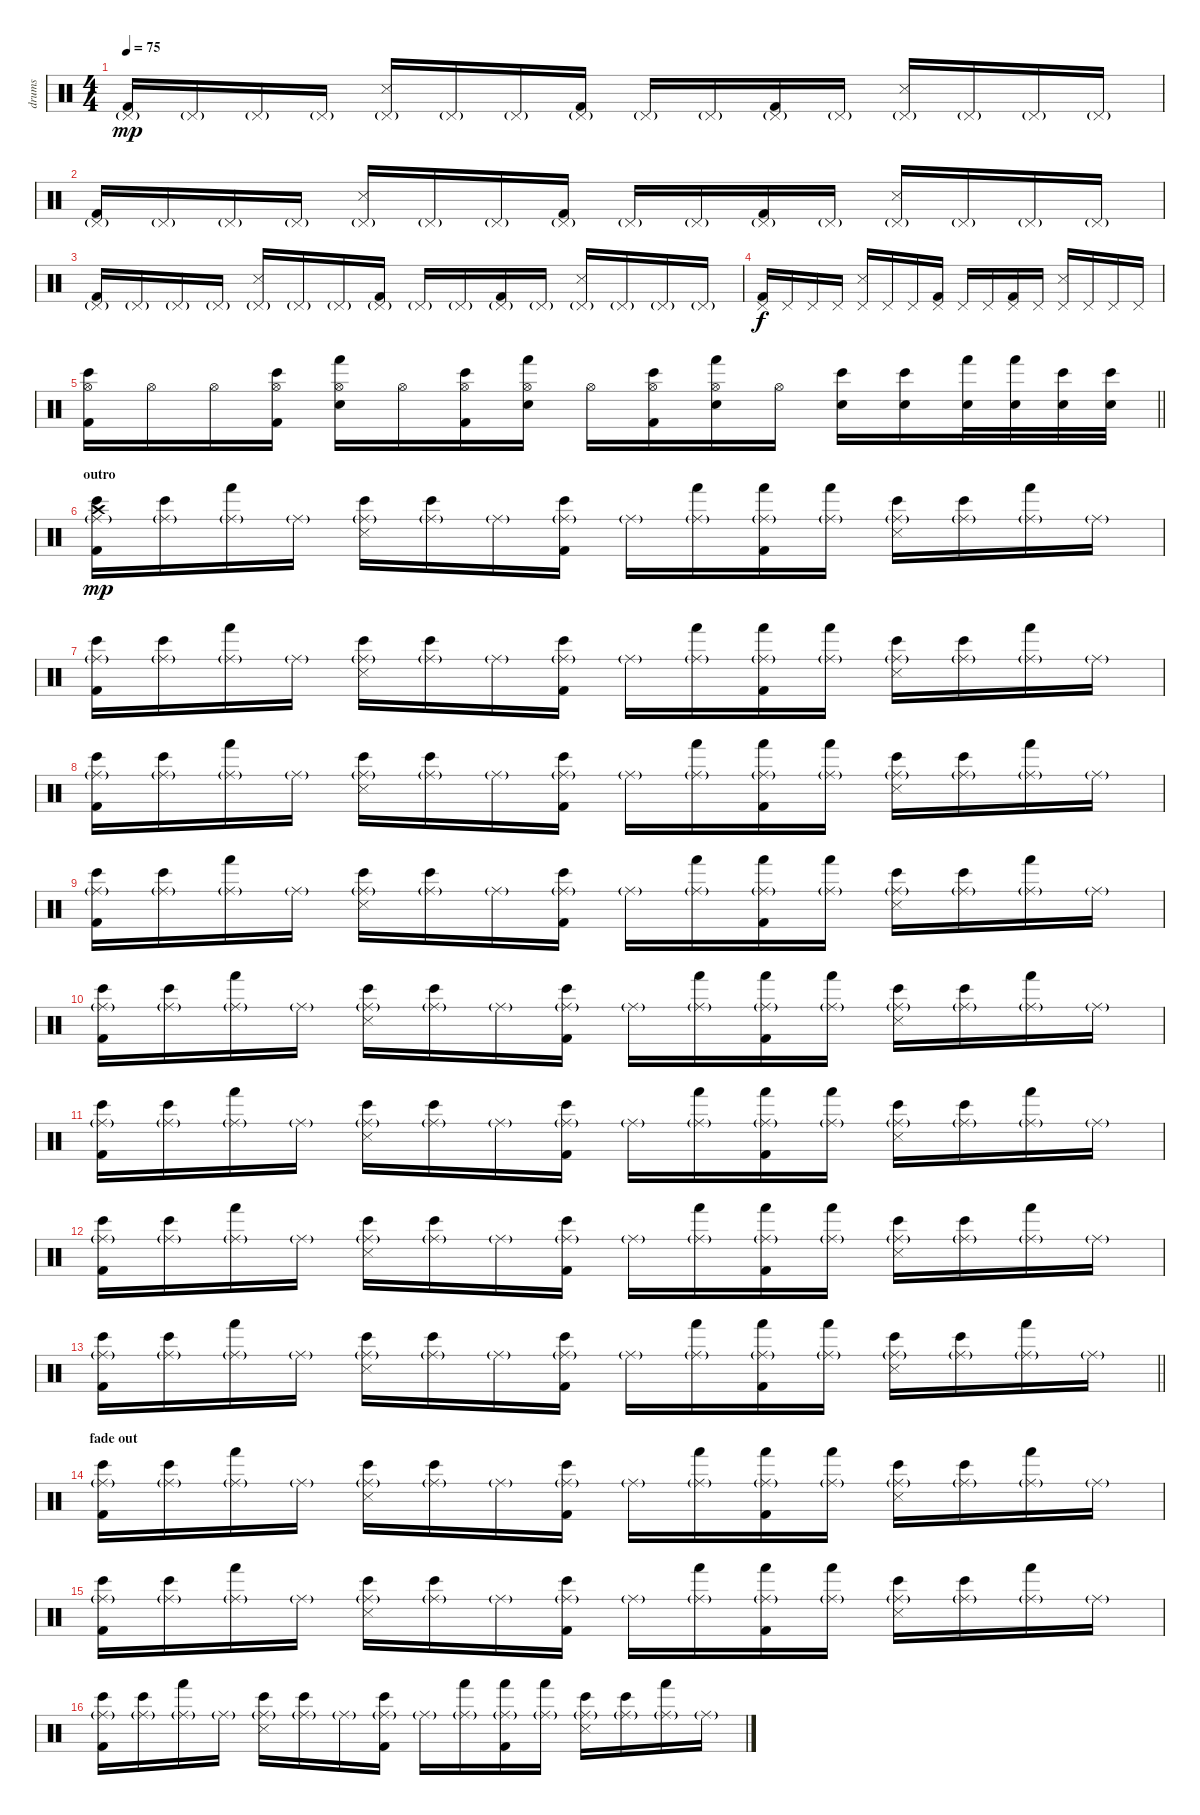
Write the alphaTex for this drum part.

\track ("drums" "drums") {instrument percussion}
\staff {score}
\articulation defaults
\ts (4 4)
\tempo 75
\clef neutral
\ks c
("Kick (hit) 2" "Pedal Hi-Hat (hit)"{g}).16{dy mp} "Pedal Hi-Hat (hit)"{g}.16 "Pedal Hi-Hat (hit)"{g}.16 "Pedal Hi-Hat (hit)"{g}.16 ("Snare (side stick) 3" "Pedal Hi-Hat (hit)"{g}).16 "Pedal Hi-Hat (hit)"{g}.16 "Pedal Hi-Hat (hit)"{g}.16 ("Kick (hit) 2" "Pedal Hi-Hat (hit)"{g}).16 "Pedal Hi-Hat (hit)"{g}.16 "Pedal Hi-Hat (hit)"{g}.16 ("Kick (hit) 2" "Pedal Hi-Hat (hit)"{g}).16 "Pedal Hi-Hat (hit)"{g}.16 ("Snare (side stick) 3" "Pedal Hi-Hat (hit)"{g}).16 "Pedal Hi-Hat (hit)"{g}.16 "Pedal Hi-Hat (hit)"{g}.16 "Pedal Hi-Hat (hit)"{g}.16 |
("Kick (hit) 2" "Pedal Hi-Hat (hit)"{g}).16 "Pedal Hi-Hat (hit)"{g}.16 "Pedal Hi-Hat (hit)"{g}.16 "Pedal Hi-Hat (hit)"{g}.16 ("Snare (side stick) 3" "Pedal Hi-Hat (hit)"{g}).16 "Pedal Hi-Hat (hit)"{g}.16 "Pedal Hi-Hat (hit)"{g}.16 ("Kick (hit) 2" "Pedal Hi-Hat (hit)"{g}).16 "Pedal Hi-Hat (hit)"{g}.16 "Pedal Hi-Hat (hit)"{g}.16 ("Kick (hit) 2" "Pedal Hi-Hat (hit)"{g}).16 "Pedal Hi-Hat (hit)"{g}.16 ("Snare (side stick) 3" "Pedal Hi-Hat (hit)"{g}).16 "Pedal Hi-Hat (hit)"{g}.16 "Pedal Hi-Hat (hit)"{g}.16 "Pedal Hi-Hat (hit)"{g}.16 |
("Kick (hit) 2" "Pedal Hi-Hat (hit)"{g}).16 "Pedal Hi-Hat (hit)"{g}.16 "Pedal Hi-Hat (hit)"{g}.16 "Pedal Hi-Hat (hit)"{g}.16 ("Snare (side stick) 3" "Pedal Hi-Hat (hit)"{g}).16 "Pedal Hi-Hat (hit)"{g}.16 "Pedal Hi-Hat (hit)"{g}.16 ("Kick (hit) 2" "Pedal Hi-Hat (hit)"{g}).16 "Pedal Hi-Hat (hit)"{g}.16 "Pedal Hi-Hat (hit)"{g}.16 ("Kick (hit) 2" "Pedal Hi-Hat (hit)"{g}).16 "Pedal Hi-Hat (hit)"{g}.16 ("Snare (side stick) 3" "Pedal Hi-Hat (hit)"{g}).16 "Pedal Hi-Hat (hit)"{g}.16 "Pedal Hi-Hat (hit)"{g}.16 "Pedal Hi-Hat (hit)"{g}.16 |
("Kick (hit) 2" "Pedal Hi-Hat (hit)").16{dy f volume 16} "Pedal Hi-Hat (hit)".16 "Pedal Hi-Hat (hit)".16 "Pedal Hi-Hat (hit)".16 ("Snare (side stick) 3" "Pedal Hi-Hat (hit)").16 "Pedal Hi-Hat (hit)".16 "Pedal Hi-Hat (hit)".16 ("Kick (hit) 2" "Pedal Hi-Hat (hit)").16 "Pedal Hi-Hat (hit)".16 "Pedal Hi-Hat (hit)".16 ("Kick (hit) 2" "Pedal Hi-Hat (hit)").16 "Pedal Hi-Hat (hit)".16 ("Snare (side stick) 3" "Pedal Hi-Hat (hit)").16 "Pedal Hi-Hat (hit)".16 "Pedal Hi-Hat (hit)".16 "Pedal Hi-Hat (hit)".16 |
\barLineRight lightlight
("Kick (hit) 2" "Bongo High (hit)" "Hi-Hat (open)").16 "Hi-Hat (open)".16 "Hi-Hat (open)".16 ("Kick (hit) 2" "Bongo High (hit)" "Hi-Hat (open)").16 ("Electric Snare (hit)" "Hand (hit)" "Hi-Hat (open)").16 "Hi-Hat (open)".16 ("Kick (hit) 2" "Bongo High (hit)" "Hi-Hat (open)").16 ("Electric Snare (hit)" "Hand (hit)" "Hi-Hat (open)").16 "Hi-Hat (open)".16 ("Kick (hit) 2" "Bongo High (hit)" "Hi-Hat (open)").16 ("Electric Snare (hit)" "Hand (hit)" "Hi-Hat (open)").16 "Hi-Hat (open)".16 ("Electric Snare (hit)" "Bongo High (hit)").16 ("Electric Snare (hit)" "Bongo High (hit)").16 ("Electric Snare (hit)" "Hand (hit)").32 ("Electric Snare (hit)" "Hand (hit)").32 ("Electric Snare (hit)" "Bongo High (hit)").32 ("Electric Snare (hit)" "Bongo High (hit)").32 |
\section ("" "outro")
("Kick (hit) 2" "Bongo High (hit)" "Ride (middle)"{g} "Crash high (hit)").16{dy mp} ("Bongo High (hit)" "Ride (middle)"{g}).16 ("Hand (hit)" "Ride (middle)"{g}).16 "Ride (middle)"{g}.16 ("Snare (side stick) 3" "Bongo High (hit)" "Ride (middle)"{g}).16 ("Bongo High (hit)" "Ride (middle)"{g}).16 "Ride (middle)"{g}.16 ("Kick (hit) 2" "Bongo High (hit)" "Ride (middle)"{g}).16 "Ride (middle)"{g}.16 ("Hand (hit)" "Ride (middle)"{g}).16 ("Kick (hit) 2" "Hand (hit)" "Ride (middle)"{g}).16 ("Hand (hit)" "Ride (middle)"{g}).16 ("Snare (side stick) 3" "Bongo High (hit)" "Ride (middle)"{g}).16 ("Bongo High (hit)" "Ride (middle)"{g}).16 ("Hand (hit)" "Ride (middle)"{g}).16 "Ride (middle)"{g}.16 |
("Kick (hit) 2" "Bongo High (hit)" "Ride (middle)"{g}).16 ("Bongo High (hit)" "Ride (middle)"{g}).16 ("Hand (hit)" "Ride (middle)"{g}).16 "Ride (middle)"{g}.16 ("Snare (side stick) 3" "Bongo High (hit)" "Ride (middle)"{g}).16 ("Bongo High (hit)" "Ride (middle)"{g}).16 "Ride (middle)"{g}.16 ("Kick (hit) 2" "Bongo High (hit)" "Ride (middle)"{g}).16 "Ride (middle)"{g}.16 ("Hand (hit)" "Ride (middle)"{g}).16 ("Kick (hit) 2" "Hand (hit)" "Ride (middle)"{g}).16 ("Hand (hit)" "Ride (middle)"{g}).16 ("Snare (side stick) 3" "Bongo High (hit)" "Ride (middle)"{g}).16 ("Bongo High (hit)" "Ride (middle)"{g}).16 ("Hand (hit)" "Ride (middle)"{g}).16 "Ride (middle)"{g}.16 |
("Kick (hit) 2" "Bongo High (hit)" "Ride (middle)"{g}).16 ("Bongo High (hit)" "Ride (middle)"{g}).16 ("Hand (hit)" "Ride (middle)"{g}).16 "Ride (middle)"{g}.16 ("Snare (side stick) 3" "Bongo High (hit)" "Ride (middle)"{g}).16 ("Bongo High (hit)" "Ride (middle)"{g}).16 "Ride (middle)"{g}.16 ("Kick (hit) 2" "Bongo High (hit)" "Ride (middle)"{g}).16 "Ride (middle)"{g}.16 ("Hand (hit)" "Ride (middle)"{g}).16 ("Kick (hit) 2" "Hand (hit)" "Ride (middle)"{g}).16 ("Hand (hit)" "Ride (middle)"{g}).16 ("Snare (side stick) 3" "Bongo High (hit)" "Ride (middle)"{g}).16 ("Bongo High (hit)" "Ride (middle)"{g}).16 ("Hand (hit)" "Ride (middle)"{g}).16 "Ride (middle)"{g}.16 |
("Kick (hit) 2" "Bongo High (hit)" "Ride (middle)"{g}).16 ("Bongo High (hit)" "Ride (middle)"{g}).16 ("Hand (hit)" "Ride (middle)"{g}).16 "Ride (middle)"{g}.16 ("Snare (side stick) 3" "Bongo High (hit)" "Ride (middle)"{g}).16 ("Bongo High (hit)" "Ride (middle)"{g}).16 "Ride (middle)"{g}.16 ("Kick (hit) 2" "Bongo High (hit)" "Ride (middle)"{g}).16 "Ride (middle)"{g}.16 ("Hand (hit)" "Ride (middle)"{g}).16 ("Kick (hit) 2" "Hand (hit)" "Ride (middle)"{g}).16 ("Hand (hit)" "Ride (middle)"{g}).16 ("Snare (side stick) 3" "Bongo High (hit)" "Ride (middle)"{g}).16 ("Bongo High (hit)" "Ride (middle)"{g}).16 ("Hand (hit)" "Ride (middle)"{g}).16 "Ride (middle)"{g}.16 |
("Kick (hit) 2" "Bongo High (hit)" "Ride (middle)"{g}).16 ("Bongo High (hit)" "Ride (middle)"{g}).16 ("Hand (hit)" "Ride (middle)"{g}).16 "Ride (middle)"{g}.16 ("Snare (side stick) 3" "Bongo High (hit)" "Ride (middle)"{g}).16 ("Bongo High (hit)" "Ride (middle)"{g}).16 "Ride (middle)"{g}.16 ("Kick (hit) 2" "Bongo High (hit)" "Ride (middle)"{g}).16 "Ride (middle)"{g}.16 ("Hand (hit)" "Ride (middle)"{g}).16 ("Kick (hit) 2" "Hand (hit)" "Ride (middle)"{g}).16 ("Hand (hit)" "Ride (middle)"{g}).16 ("Snare (side stick) 3" "Bongo High (hit)" "Ride (middle)"{g}).16 ("Bongo High (hit)" "Ride (middle)"{g}).16 ("Hand (hit)" "Ride (middle)"{g}).16 "Ride (middle)"{g}.16 |
("Kick (hit) 2" "Bongo High (hit)" "Ride (middle)"{g}).16 ("Bongo High (hit)" "Ride (middle)"{g}).16 ("Hand (hit)" "Ride (middle)"{g}).16 "Ride (middle)"{g}.16 ("Snare (side stick) 3" "Bongo High (hit)" "Ride (middle)"{g}).16 ("Bongo High (hit)" "Ride (middle)"{g}).16 "Ride (middle)"{g}.16 ("Kick (hit) 2" "Bongo High (hit)" "Ride (middle)"{g}).16 "Ride (middle)"{g}.16 ("Hand (hit)" "Ride (middle)"{g}).16 ("Kick (hit) 2" "Hand (hit)" "Ride (middle)"{g}).16 ("Hand (hit)" "Ride (middle)"{g}).16 ("Snare (side stick) 3" "Bongo High (hit)" "Ride (middle)"{g}).16 ("Bongo High (hit)" "Ride (middle)"{g}).16 ("Hand (hit)" "Ride (middle)"{g}).16 "Ride (middle)"{g}.16 |
("Kick (hit) 2" "Bongo High (hit)" "Ride (middle)"{g}).16 ("Bongo High (hit)" "Ride (middle)"{g}).16 ("Hand (hit)" "Ride (middle)"{g}).16 "Ride (middle)"{g}.16 ("Snare (side stick) 3" "Bongo High (hit)" "Ride (middle)"{g}).16 ("Bongo High (hit)" "Ride (middle)"{g}).16 "Ride (middle)"{g}.16 ("Kick (hit) 2" "Bongo High (hit)" "Ride (middle)"{g}).16 "Ride (middle)"{g}.16 ("Hand (hit)" "Ride (middle)"{g}).16 ("Kick (hit) 2" "Hand (hit)" "Ride (middle)"{g}).16 ("Hand (hit)" "Ride (middle)"{g}).16 ("Snare (side stick) 3" "Bongo High (hit)" "Ride (middle)"{g}).16 ("Bongo High (hit)" "Ride (middle)"{g}).16 ("Hand (hit)" "Ride (middle)"{g}).16 "Ride (middle)"{g}.16 |
\barLineRight lightlight
("Kick (hit) 2" "Bongo High (hit)" "Ride (middle)"{g}).16 ("Bongo High (hit)" "Ride (middle)"{g}).16 ("Hand (hit)" "Ride (middle)"{g}).16 "Ride (middle)"{g}.16 ("Snare (side stick) 3" "Bongo High (hit)" "Ride (middle)"{g}).16 ("Bongo High (hit)" "Ride (middle)"{g}).16 "Ride (middle)"{g}.16 ("Kick (hit) 2" "Bongo High (hit)" "Ride (middle)"{g}).16 "Ride (middle)"{g}.16 ("Hand (hit)" "Ride (middle)"{g}).16 ("Kick (hit) 2" "Hand (hit)" "Ride (middle)"{g}).16 ("Hand (hit)" "Ride (middle)"{g}).16 ("Snare (side stick) 3" "Bongo High (hit)" "Ride (middle)"{g}).16 ("Bongo High (hit)" "Ride (middle)"{g}).16 ("Hand (hit)" "Ride (middle)"{g}).16 "Ride (middle)"{g}.16 |
\section ("" "fade out")
("Kick (hit) 2" "Bongo High (hit)" "Ride (middle)"{g}).16 ("Bongo High (hit)" "Ride (middle)"{g}).16 ("Hand (hit)" "Ride (middle)"{g}).16 "Ride (middle)"{g}.16 ("Snare (side stick) 3" "Bongo High (hit)" "Ride (middle)"{g}).16 ("Bongo High (hit)" "Ride (middle)"{g}).16 "Ride (middle)"{g}.16 ("Kick (hit) 2" "Bongo High (hit)" "Ride (middle)"{g}).16 "Ride (middle)"{g}.16 ("Hand (hit)" "Ride (middle)"{g}).16 ("Kick (hit) 2" "Hand (hit)" "Ride (middle)"{g}).16 ("Hand (hit)" "Ride (middle)"{g}).16 ("Snare (side stick) 3" "Bongo High (hit)" "Ride (middle)"{g}).16 ("Bongo High (hit)" "Ride (middle)"{g}).16 ("Hand (hit)" "Ride (middle)"{g}).16 "Ride (middle)"{g}.16 |
("Kick (hit) 2" "Bongo High (hit)" "Ride (middle)"{g}).16 ("Bongo High (hit)" "Ride (middle)"{g}).16 ("Hand (hit)" "Ride (middle)"{g}).16 "Ride (middle)"{g}.16 ("Snare (side stick) 3" "Bongo High (hit)" "Ride (middle)"{g}).16 ("Bongo High (hit)" "Ride (middle)"{g}).16 "Ride (middle)"{g}.16 ("Kick (hit) 2" "Bongo High (hit)" "Ride (middle)"{g}).16 "Ride (middle)"{g}.16 ("Hand (hit)" "Ride (middle)"{g}).16 ("Kick (hit) 2" "Hand (hit)" "Ride (middle)"{g}).16 ("Hand (hit)" "Ride (middle)"{g}).16 ("Snare (side stick) 3" "Bongo High (hit)" "Ride (middle)"{g}).16 ("Bongo High (hit)" "Ride (middle)"{g}).16 ("Hand (hit)" "Ride (middle)"{g}).16 "Ride (middle)"{g}.16 |
("Kick (hit) 2" "Bongo High (hit)" "Ride (middle)"{g}).16 ("Bongo High (hit)" "Ride (middle)"{g}).16 ("Hand (hit)" "Ride (middle)"{g}).16 "Ride (middle)"{g}.16 ("Snare (side stick) 3" "Bongo High (hit)" "Ride (middle)"{g}).16 ("Bongo High (hit)" "Ride (middle)"{g}).16 "Ride (middle)"{g}.16 ("Kick (hit) 2" "Bongo High (hit)" "Ride (middle)"{g}).16 "Ride (middle)"{g}.16 ("Hand (hit)" "Ride (middle)"{g}).16 ("Kick (hit) 2" "Hand (hit)" "Ride (middle)"{g}).16 ("Hand (hit)" "Ride (middle)"{g}).16 ("Snare (side stick) 3" "Bongo High (hit)" "Ride (middle)"{g}).16 ("Bongo High (hit)" "Ride (middle)"{g}).16 ("Hand (hit)" "Ride (middle)"{g}).16 "Ride (middle)"{g}.16
